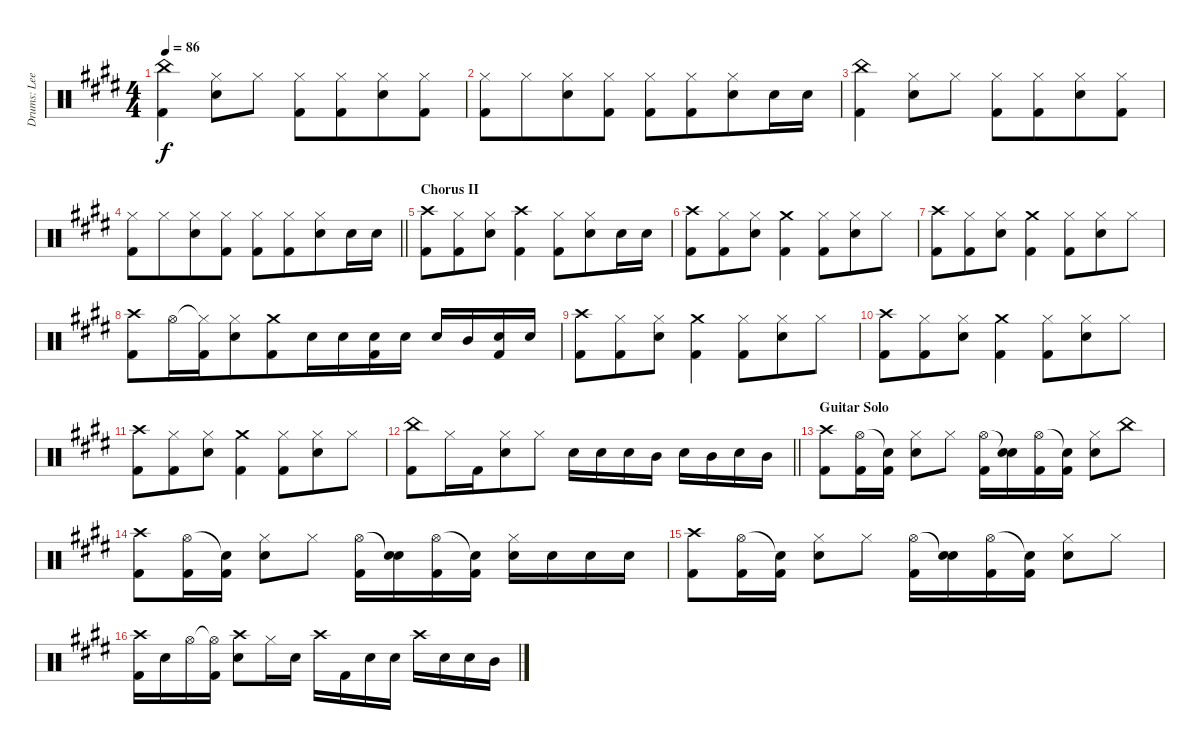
\track ("Drums: Lee" "Drums: Lee") {instrument percussion}
\staff {score}
\articulation defaults
\ts (4 4)
\tempo 86
\clef neutral
\ks c#minor
("China (hit)" "Kick (hit) 2").4{dy f} ("Hi-Hat (closed)" "Snare (hit) 2").8 "Hi-Hat (closed)".8 ("Hi-Hat (closed)" "Kick (hit) 2").8 ("Hi-Hat (closed)" "Kick (hit) 2").8{beam merge} ("Hi-Hat (closed)" "Snare (hit) 2").8 ("Hi-Hat (closed)" "Kick (hit) 2").8 |
("Hi-Hat (closed)" "Kick (hit) 2").8 "Hi-Hat (closed)".8{beam merge} ("Hi-Hat (closed)" "Snare (hit) 2").8 ("Hi-Hat (closed)" "Kick (hit) 2").8 ("Hi-Hat (closed)" "Kick (hit) 2").8 ("Hi-Hat (closed)" "Kick (hit) 2").8{beam merge} ("Hi-Hat (closed)" "Snare (hit) 2").8 "Snare (hit) 2".16 "Snare (hit) 2".16 |
("China (hit)" "Kick (hit) 2").4 ("Hi-Hat (closed)" "Snare (hit) 2").8 "Hi-Hat (closed)".8 ("Hi-Hat (closed)" "Kick (hit) 2").8 ("Hi-Hat (closed)" "Kick (hit) 2").8{beam merge} ("Hi-Hat (closed)" "Snare (hit) 2").8 ("Hi-Hat (closed)" "Kick (hit) 2").8 |
\barLineRight lightlight
("Hi-Hat (closed)" "Kick (hit) 2").8 "Hi-Hat (closed)".8{beam merge} ("Hi-Hat (closed)" "Snare (hit) 2").8 ("Hi-Hat (closed)" "Kick (hit) 2").8 ("Hi-Hat (closed)" "Kick (hit) 2").8 ("Hi-Hat (closed)" "Kick (hit) 2").8{beam merge} ("Hi-Hat (closed)" "Snare (hit) 2").8 "Snare (hit) 2".16 "Snare (hit) 2".16 |
\section ("" "Chorus II")
("Crash high (hit)" "Kick (hit) 2").8 ("Hi-Hat (closed)" "Kick (hit) 2").8{beam merge} ("Hi-Hat (closed)" "Snare (hit) 2").8 ("Crash high (hit)" "Kick (hit) 2").4 ("Hi-Hat (closed)" "Kick (hit) 2").8{beam merge} ("Hi-Hat (closed)" "Snare (hit) 2").8 "Snare (hit) 2".16 "Snare (hit) 2".16 |
("Crash high (hit)" "Kick (hit) 2").8 ("Hi-Hat (closed)" "Kick (hit) 2").8{beam merge} ("Hi-Hat (closed)" "Snare (hit) 2").8 ("Crash medium (hit)" "Kick (hit) 2").4 ("Hi-Hat (closed)" "Kick (hit) 2").8{beam merge} ("Hi-Hat (closed)" "Snare (hit) 2").8 "Hi-Hat (closed)".8 |
("Crash high (hit)" "Kick (hit) 2").8 ("Hi-Hat (closed)" "Kick (hit) 2").8{beam merge} ("Hi-Hat (closed)" "Snare (hit) 2").8 ("Crash medium (hit)" "Kick (hit) 2").4 ("Hi-Hat (closed)" "Kick (hit) 2").8{beam merge} ("Hi-Hat (closed)" "Snare (hit) 2").8 "Hi-Hat (closed)".8 |
("Crash high (hit)" "Kick (hit) 2").8 "Hi-Hat (open)".16 ("Hi-Hat (closed)"{t} "Kick (hit) 2").16{beam merge} ("Hi-Hat (closed)" "Snare (hit) 2").8 ("Crash medium (hit)" "Kick (hit) 2").8{beam merge} "Snare (hit) 2".16 "Snare (hit) 2".16 ("Snare (hit) 2" "Kick (hit) 2").16 "Snare (hit) 2".16 "Snare (hit) 2".16 "Mid Tom (hit)".16 ("Snare (hit) 2" "Kick (hit) 2").16 "Snare (hit) 2".16 |
("Crash high (hit)" "Kick (hit) 2").8 ("Hi-Hat (closed)" "Kick (hit) 2").8{beam merge} ("Hi-Hat (closed)" "Snare (hit) 2").8 ("Crash medium (hit)" "Kick (hit) 2").4 ("Hi-Hat (closed)" "Kick (hit) 2").8{beam merge} ("Hi-Hat (closed)" "Snare (hit) 2").8 "Hi-Hat (closed)".8 |
("Crash high (hit)" "Kick (hit) 2").8 ("Hi-Hat (closed)" "Kick (hit) 2").8{beam merge} ("Hi-Hat (closed)" "Snare (hit) 2").8 ("Crash medium (hit)" "Kick (hit) 2").4 ("Hi-Hat (closed)" "Kick (hit) 2").8{beam merge} ("Hi-Hat (closed)" "Snare (hit) 2").8 "Hi-Hat (closed)".8 |
("Crash high (hit)" "Kick (hit) 2").8 ("Hi-Hat (closed)" "Kick (hit) 2").8{beam merge} ("Hi-Hat (closed)" "Snare (hit) 2").8 ("Crash medium (hit)" "Kick (hit) 2").4 ("Hi-Hat (closed)" "Kick (hit) 2").8{beam merge} ("Hi-Hat (closed)" "Snare (hit) 2").8 "Hi-Hat (closed)".8 |
\barLineRight lightlight
("China (hit)" "Kick (hit) 2").8 "Hi-Hat (closed)".16 "Kick (hit) 2".16{beam merge} ("Hi-Hat (closed)" "Snare (hit) 2").8 "Hi-Hat (closed)".8 "Snare (hit) 2".16 "Snare (hit) 2".16 "Snare (hit) 2".16 "Mid Tom (hit)".16 "Snare (hit) 2".16 "Mid Tom (hit)".16 "Snare (hit) 2".16 "Mid Tom (hit)".16 |
\section ("" "Guitar Solo")
("Crash high (hit)" "Kick (hit) 2").8 ("Hi-Hat (open)" "Kick (hit) 2").16 ("Snare (hit)"{t} "Kick (hit) 2").16 ("Hi-Hat (closed)" "Snare (hit) 2").8 "Hi-Hat (closed)".8 ("Hi-Hat (open)" "Kick (hit) 2").16 ("Snare (hit)"{t} "Snare (hit) 2").16 ("Hi-Hat (open)" "Kick (hit) 2").16 ("Snare (hit)"{t} "Kick (hit) 2").16 ("Hi-Hat (closed)" "Snare (hit) 2").8 "China (hit)".8 |
("Crash high (hit)" "Kick (hit) 2").8 ("Hi-Hat (open)" "Kick (hit) 2").16 ("Snare (hit)"{t} "Kick (hit) 2").16 ("Hi-Hat (closed)" "Snare (hit) 2").8 "Hi-Hat (closed)".8 ("Hi-Hat (open)" "Kick (hit) 2").16 ("Snare (hit)"{t} "Snare (hit) 2").16 ("Hi-Hat (open)" "Kick (hit) 2").16 ("Snare (hit)"{t} "Kick (hit) 2").16 ("Hi-Hat (closed)" "Snare (hit) 2").16 "Snare (hit) 2".16 "Snare (hit) 2".16 "Snare (hit) 2".16 |
("Crash high (hit)" "Kick (hit) 2").8 ("Hi-Hat (open)" "Kick (hit) 2").16 ("Snare (hit)"{t} "Kick (hit) 2").16 ("Hi-Hat (closed)" "Snare (hit) 2").8 "Hi-Hat (closed)".8 ("Hi-Hat (open)" "Kick (hit) 2").16 ("Snare (hit)"{t} "Snare (hit) 2").16 ("Hi-Hat (open)" "Kick (hit) 2").16 ("Snare (hit)"{t} "Kick (hit) 2").16 ("Hi-Hat (closed)" "Snare (hit) 2").8 "Hi-Hat (closed)".8 |
("Crash high (hit)" "Kick (hit) 2").16 "Snare (hit) 2".16 "Hi-Hat (open)".16 ("Hi-Hat (open)"{t} "Kick (hit) 2").16 ("Crash high (hit)" "Snare (hit) 2").8 "Hi-Hat (closed)".16 "Snare (hit) 2".16 "Crash high (hit)".16 "Kick (hit) 2".16 "Snare (hit) 2".16 "Snare (hit) 2".16 "Crash high (hit)".16 "Snare (hit) 2".16 "Snare (hit) 2".16 "Mid Tom (hit)".16
